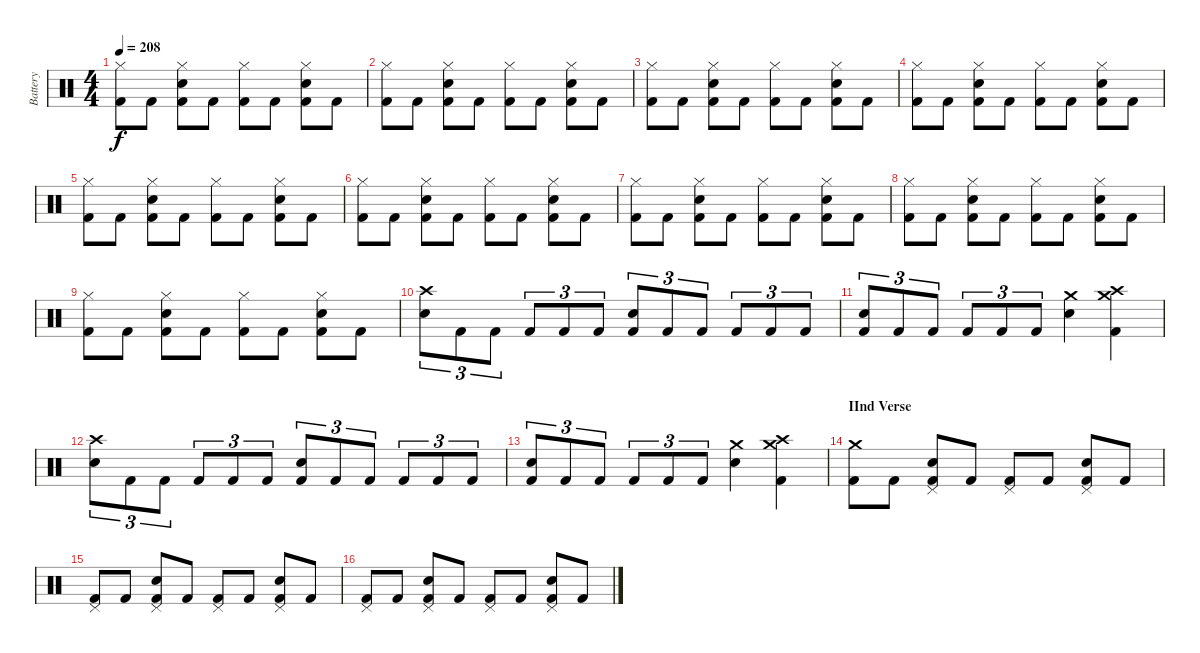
\track ("Battery" "Battery") {instrument percussion}
\staff {score}
\articulation defaults
\ts (4 4)
\tempo 208
\clef neutral
\ks c
("Hi-Hat (closed)" "Kick (hit) 2").8{dy f} "Kick (hit) 2".8 ("Hi-Hat (closed)" "Electric Snare (hit)" "Kick (hit) 2").8 "Kick (hit) 2".8 ("Hi-Hat (closed)" "Kick (hit) 2").8 "Kick (hit) 2".8 ("Hi-Hat (closed)" "Electric Snare (hit)" "Kick (hit) 2").8 "Kick (hit) 2".8 |
("Hi-Hat (closed)" "Kick (hit) 2").8 "Kick (hit) 2".8 ("Hi-Hat (closed)" "Electric Snare (hit)" "Kick (hit) 2").8 "Kick (hit) 2".8 ("Hi-Hat (closed)" "Kick (hit) 2").8 "Kick (hit) 2".8 ("Hi-Hat (closed)" "Electric Snare (hit)" "Kick (hit) 2").8 "Kick (hit) 2".8 |
("Hi-Hat (closed)" "Kick (hit) 2").8 "Kick (hit) 2".8 ("Hi-Hat (closed)" "Electric Snare (hit)" "Kick (hit) 2").8 "Kick (hit) 2".8 ("Hi-Hat (closed)" "Kick (hit) 2").8 "Kick (hit) 2".8 ("Hi-Hat (closed)" "Electric Snare (hit)" "Kick (hit) 2").8 "Kick (hit) 2".8 |
("Hi-Hat (closed)" "Kick (hit) 2").8 "Kick (hit) 2".8 ("Hi-Hat (closed)" "Electric Snare (hit)" "Kick (hit) 2").8 "Kick (hit) 2".8 ("Hi-Hat (closed)" "Kick (hit) 2").8 "Kick (hit) 2".8 ("Hi-Hat (closed)" "Electric Snare (hit)" "Kick (hit) 2").8 "Kick (hit) 2".8 |
("Hi-Hat (closed)" "Kick (hit) 2").8 "Kick (hit) 2".8 ("Hi-Hat (closed)" "Electric Snare (hit)" "Kick (hit) 2").8 "Kick (hit) 2".8 ("Hi-Hat (closed)" "Kick (hit) 2").8 "Kick (hit) 2".8 ("Hi-Hat (closed)" "Electric Snare (hit)" "Kick (hit) 2").8 "Kick (hit) 2".8 |
("Hi-Hat (closed)" "Kick (hit) 2").8 "Kick (hit) 2".8 ("Hi-Hat (closed)" "Electric Snare (hit)" "Kick (hit) 2").8 "Kick (hit) 2".8 ("Hi-Hat (closed)" "Kick (hit) 2").8 "Kick (hit) 2".8 ("Hi-Hat (closed)" "Electric Snare (hit)" "Kick (hit) 2").8 "Kick (hit) 2".8 |
("Hi-Hat (closed)" "Kick (hit) 2").8 "Kick (hit) 2".8 ("Hi-Hat (closed)" "Electric Snare (hit)" "Kick (hit) 2").8 "Kick (hit) 2".8 ("Hi-Hat (closed)" "Kick (hit) 2").8 "Kick (hit) 2".8 ("Hi-Hat (closed)" "Electric Snare (hit)" "Kick (hit) 2").8 "Kick (hit) 2".8 |
("Hi-Hat (closed)" "Kick (hit) 2").8 "Kick (hit) 2".8 ("Hi-Hat (closed)" "Electric Snare (hit)" "Kick (hit) 2").8 "Kick (hit) 2".8 ("Hi-Hat (closed)" "Kick (hit) 2").8 "Kick (hit) 2".8 ("Hi-Hat (closed)" "Electric Snare (hit)" "Kick (hit) 2").8 "Kick (hit) 2".8 |
("Hi-Hat (closed)" "Kick (hit) 2").8 "Kick (hit) 2".8 ("Hi-Hat (closed)" "Electric Snare (hit)" "Kick (hit) 2").8 "Kick (hit) 2".8 ("Hi-Hat (closed)" "Kick (hit) 2").8 "Kick (hit) 2".8 ("Hi-Hat (closed)" "Electric Snare (hit)" "Kick (hit) 2").8 "Kick (hit) 2".8 |
("Crash high (hit)" "Electric Snare (hit)").8{tu (3 2)} "Kick (hit) 2".8{tu (3 2)} "Kick (hit) 2".8{tu (3 2)} "Kick (hit) 2".8{tu (3 2)} "Kick (hit) 2".8{tu (3 2)} "Kick (hit) 2".8{tu (3 2)} ("Electric Snare (hit)" "Kick (hit) 2").8{tu (3 2)} "Kick (hit) 2".8{tu (3 2)} "Kick (hit) 2".8{tu (3 2)} "Kick (hit) 2".8{tu (3 2)} "Kick (hit) 2".8{tu (3 2)} "Kick (hit) 2".8{tu (3 2)} |
("Electric Snare (hit)" "Kick (hit) 2").8{tu (3 2)} "Kick (hit) 2".8{tu (3 2)} "Kick (hit) 2".8{tu (3 2)} "Kick (hit) 2".8{tu (3 2)} "Kick (hit) 2".8{tu (3 2)} "Kick (hit) 2".8{tu (3 2)} ("Crash medium (hit)" "Electric Snare (hit)").4 ("Crash high (hit)" "Crash medium (hit)" "Kick (hit) 2").4 |
("Crash high (hit)" "Electric Snare (hit)").8{tu (3 2)} "Kick (hit) 2".8{tu (3 2)} "Kick (hit) 2".8{tu (3 2)} "Kick (hit) 2".8{tu (3 2)} "Kick (hit) 2".8{tu (3 2)} "Kick (hit) 2".8{tu (3 2)} ("Electric Snare (hit)" "Kick (hit) 2").8{tu (3 2)} "Kick (hit) 2".8{tu (3 2)} "Kick (hit) 2".8{tu (3 2)} "Kick (hit) 2".8{tu (3 2)} "Kick (hit) 2".8{tu (3 2)} "Kick (hit) 2".8{tu (3 2)} |
("Electric Snare (hit)" "Kick (hit) 2").8{tu (3 2)} "Kick (hit) 2".8{tu (3 2)} "Kick (hit) 2".8{tu (3 2)} "Kick (hit) 2".8{tu (3 2)} "Kick (hit) 2".8{tu (3 2)} "Kick (hit) 2".8{tu (3 2)} ("Crash medium (hit)" "Electric Snare (hit)").4 ("Crash high (hit)" "Crash medium (hit)" "Kick (hit) 2").4 |
\section ("" "IInd Verse")
("Crash medium (hit)" "Kick (hit) 2").8 "Kick (hit) 2".8 ("Pedal Hi-Hat (hit)" "Electric Snare (hit)" "Kick (hit) 2").8 "Kick (hit) 2".8 ("Pedal Hi-Hat (hit)" "Kick (hit) 2").8 "Kick (hit) 2".8 ("Pedal Hi-Hat (hit)" "Electric Snare (hit)" "Kick (hit) 2").8 "Kick (hit) 2".8 |
("Pedal Hi-Hat (hit)" "Kick (hit) 2").8 "Kick (hit) 2".8 ("Pedal Hi-Hat (hit)" "Electric Snare (hit)" "Kick (hit) 2").8 "Kick (hit) 2".8 ("Pedal Hi-Hat (hit)" "Kick (hit) 2").8 "Kick (hit) 2".8 ("Pedal Hi-Hat (hit)" "Electric Snare (hit)" "Kick (hit) 2").8 "Kick (hit) 2".8 |
("Pedal Hi-Hat (hit)" "Kick (hit) 2").8 "Kick (hit) 2".8 ("Pedal Hi-Hat (hit)" "Electric Snare (hit)" "Kick (hit) 2").8 "Kick (hit) 2".8 ("Pedal Hi-Hat (hit)" "Kick (hit) 2").8 "Kick (hit) 2".8 ("Pedal Hi-Hat (hit)" "Electric Snare (hit)" "Kick (hit) 2").8 "Kick (hit) 2".8
